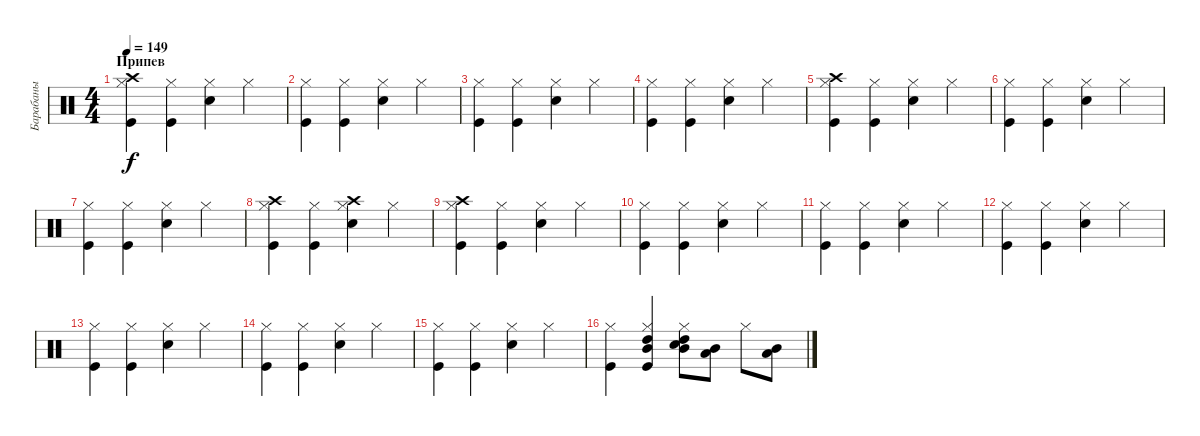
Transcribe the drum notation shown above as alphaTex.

\track ("Барабаны" "Барабаны") {instrument percussion}
\staff {score}
\articulation defaults
\ts (4 4)
\section ("" "Припев")
\tempo 149
\clef neutral
\ks c
("Kick (hit)" "Hi-Hat (closed)" "Crash high (hit)").4{dy f} ("Kick (hit)" "Hi-Hat (closed)").4 ("Snare (hit) 2" "Hi-Hat (closed)").4 "Hi-Hat (closed)".4 |
("Kick (hit)" "Hi-Hat (closed)").4 ("Kick (hit)" "Hi-Hat (closed)").4 ("Snare (hit) 2" "Hi-Hat (closed)").4 "Hi-Hat (closed)".4 |
("Kick (hit)" "Hi-Hat (closed)").4 ("Kick (hit)" "Hi-Hat (closed)").4 ("Snare (hit) 2" "Hi-Hat (closed)").4 "Hi-Hat (closed)".4 |
("Kick (hit)" "Hi-Hat (closed)").4 ("Kick (hit)" "Hi-Hat (closed)").4 ("Snare (hit) 2" "Hi-Hat (closed)").4 "Hi-Hat (closed)".4 |
("Kick (hit)" "Hi-Hat (closed)" "Crash high (hit)").4 ("Kick (hit)" "Hi-Hat (closed)").4 ("Snare (hit) 2" "Hi-Hat (closed)").4 "Hi-Hat (closed)".4 |
("Kick (hit)" "Hi-Hat (closed)").4 ("Kick (hit)" "Hi-Hat (closed)").4 ("Snare (hit) 2" "Hi-Hat (closed)").4 "Hi-Hat (closed)".4 |
("Kick (hit)" "Hi-Hat (closed)").4 ("Kick (hit)" "Hi-Hat (closed)").4 ("Snare (hit) 2" "Hi-Hat (closed)").4 "Hi-Hat (closed)".4 |
("Kick (hit)" "Hi-Hat (closed)" "Crash high (hit)").4 ("Kick (hit)" "Hi-Hat (closed)").4 ("Snare (hit) 2" "Hi-Hat (closed)" "Crash high (hit)").4 "Hi-Hat (closed)".4 |
("Kick (hit)" "Hi-Hat (closed)" "Crash high (hit)").4 ("Kick (hit)" "Hi-Hat (closed)").4 ("Snare (hit) 2" "Hi-Hat (closed)").4 "Hi-Hat (closed)".4 |
("Kick (hit)" "Hi-Hat (closed)").4 ("Kick (hit)" "Hi-Hat (closed)").4 ("Snare (hit) 2" "Hi-Hat (closed)").4 "Hi-Hat (closed)".4 |
("Kick (hit)" "Hi-Hat (closed)").4 ("Kick (hit)" "Hi-Hat (closed)").4 ("Snare (hit) 2" "Hi-Hat (closed)").4 "Hi-Hat (closed)".4 |
("Kick (hit)" "Hi-Hat (closed)").4 ("Kick (hit)" "Hi-Hat (closed)").4 ("Snare (hit) 2" "Hi-Hat (closed)").4 "Hi-Hat (closed)".4 |
("Kick (hit)" "Hi-Hat (closed)").4 ("Kick (hit)" "Hi-Hat (closed)").4 ("Snare (hit) 2" "Hi-Hat (closed)").4 "Hi-Hat (closed)".4 |
("Kick (hit)" "Hi-Hat (closed)").4 ("Kick (hit)" "Hi-Hat (closed)").4 ("Snare (hit) 2" "Hi-Hat (closed)").4 "Hi-Hat (closed)".4 |
("Kick (hit)" "Hi-Hat (closed)").4 ("Kick (hit)" "Hi-Hat (closed)").4 ("Snare (hit) 2" "Hi-Hat (closed)").4 "Hi-Hat (closed)".4 |
("Kick (hit)" "Hi-Hat (closed)").4 ("Kick (hit)" "Hi-Hat (closed)" "Mid Tom (hit)" "High Tom (hit)").4 ("Snare (hit) 2" "Hi-Hat (closed)" "Mid Tom (hit)" "High Tom (hit)").8 ("Low Tom (hit)" "Mid Tom (hit)").8 "Hi-Hat (closed)".8 ("Low Tom (hit)" "Mid Tom (hit)").8
